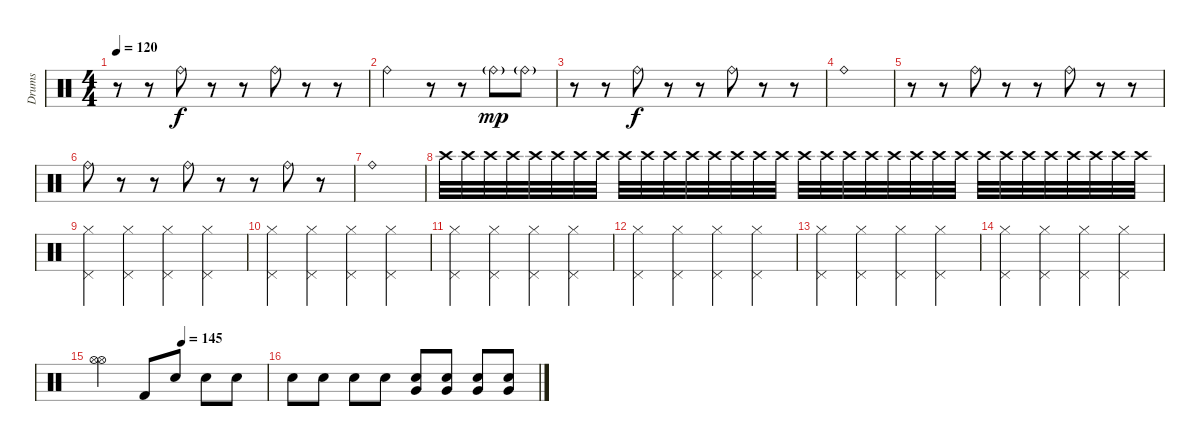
\track ("Drums" "Drums") {instrument percussion}
\staff {score}
\articulation defaults
\ts (4 4)
\tempo 120
\clef neutral
\ks c
r.8{dy f} r.8 "Ride (bell)".8{volume 10 balance 16} r.8 r.8 "Ride (bell)".8{balance 8} r.8 r.8 |
"Ride (bell)".2{balance 0} r.8 r.8 "Ride (bell)"{g}.8{dy mp} "Ride (bell)"{g}.8 |
r.8 r.8 "Ride (bell)".8{dy f balance 16} r.8 r.8 "Ride (bell)".8{balance 8} r.8 r.8 |
"Ride (bell)".1{balance 0} |
r.8 r.8 "Ride (bell)".8{balance 12} r.8 r.8 "Ride (bell)".8{balance 16} r.8 r.8 |
"Ride (bell)".8{balance 12} r.8 r.8 "Ride (bell)".8{balance 8} r.8 r.8 "Ride (bell)".8{balance 4} r.8 |
"Ride (bell)".1{volume 0 balance 0} |
"Crash high (hit)".32{volume 4 balance 8} "Crash high (hit)".32 "Crash high (hit)".32 "Crash high (hit)".32 "Crash high (hit)".32 "Crash high (hit)".32 "Crash high (hit)".32 "Crash high (hit)".32 "Crash high (hit)".32 "Crash high (hit)".32 "Crash high (hit)".32 "Crash high (hit)".32 "Crash high (hit)".32 "Crash high (hit)".32 "Crash high (hit)".32 "Crash high (hit)".32 "Crash high (hit)".32 "Crash high (hit)".32 "Crash high (hit)".32 "Crash high (hit)".32 "Crash high (hit)".32 "Crash high (hit)".32 "Crash high (hit)".32 "Crash high (hit)".32 "Crash high (hit)".32 "Crash high (hit)".32 "Crash high (hit)".32 "Crash high (hit)".32 "Crash high (hit)".32 "Crash high (hit)".32 "Crash high (hit)".32 "Crash high (hit)".32 |
("Pedal Hi-Hat (hit)" "Hi-Hat (closed)").4{volume 10 balance 8} ("Pedal Hi-Hat (hit)" "Hi-Hat (closed)").4 ("Pedal Hi-Hat (hit)" "Hi-Hat (closed)").4 ("Pedal Hi-Hat (hit)" "Hi-Hat (closed)").4 |
("Pedal Hi-Hat (hit)" "Hi-Hat (closed)").4 ("Pedal Hi-Hat (hit)" "Hi-Hat (closed)").4 ("Pedal Hi-Hat (hit)" "Hi-Hat (closed)").4 ("Pedal Hi-Hat (hit)" "Hi-Hat (closed)").4 |
("Pedal Hi-Hat (hit)" "Hi-Hat (closed)").4 ("Pedal Hi-Hat (hit)" "Hi-Hat (closed)").4 ("Pedal Hi-Hat (hit)" "Hi-Hat (closed)").4 ("Pedal Hi-Hat (hit)" "Hi-Hat (closed)").4 |
("Pedal Hi-Hat (hit)" "Hi-Hat (closed)").4 ("Pedal Hi-Hat (hit)" "Hi-Hat (closed)").4 ("Pedal Hi-Hat (hit)" "Hi-Hat (closed)").4 ("Pedal Hi-Hat (hit)" "Hi-Hat (closed)").4 |
("Pedal Hi-Hat (hit)" "Hi-Hat (closed)").4 ("Pedal Hi-Hat (hit)" "Hi-Hat (closed)").4 ("Pedal Hi-Hat (hit)" "Hi-Hat (closed)").4 ("Pedal Hi-Hat (hit)" "Hi-Hat (closed)").4 |
("Pedal Hi-Hat (hit)" "Hi-Hat (closed)").4 ("Pedal Hi-Hat (hit)" "Hi-Hat (closed)").4 ("Pedal Hi-Hat (hit)" "Hi-Hat (closed)").4 ("Pedal Hi-Hat (hit)" "Hi-Hat (closed)").4 |
\tempo (145 0.5)
("Hi-Hat (open)" "Hi-Hat (open)").2{volume 0} "Kick (hit) 2".8{volume 10} "Snare (hit) 2".8 "Snare (hit) 2".8 "Snare (hit) 2".8 |
"Snare (hit) 2".8 "Snare (hit) 2".8 "Snare (hit) 2".8 "Snare (hit) 2".8 ("Snare (hit) 2" "Very Low Tom (hit)").8 ("Snare (hit) 2" "Very Low Tom (hit)").8 ("Snare (hit) 2" "Very Low Tom (hit)").8 ("Snare (hit) 2" "Very Low Tom (hit)").8
